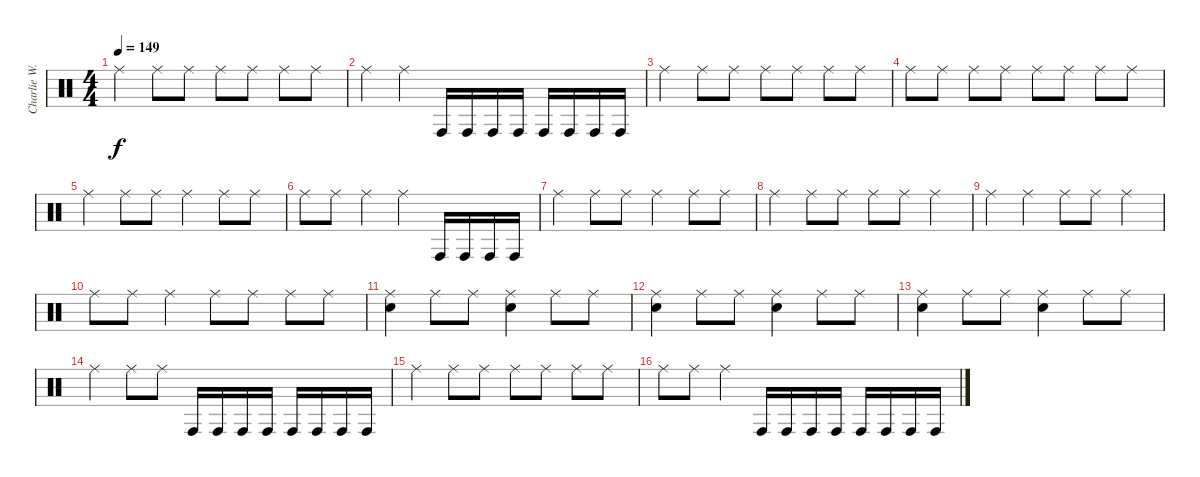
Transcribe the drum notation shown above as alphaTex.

\track ("Charlie W. drums" "Charlie W.") {instrument percussion}
\staff {score}
\articulation defaults
\ts (4 4)
\tempo 149
\clef neutral
\ks c "Ride (middle)".4{dy f} "Ride (middle)".8 "Ride (middle)".8 "Ride (middle)".8 "Ride (middle)".8 "Ride (middle)".8 "Ride (middle)".8
|
"Ride (middle)".4 "Ride (middle)".4 "Conga high (hit)".16 "Conga high (hit)".16 "Conga high (hit)".16 "Conga high (hit)".16 "Conga high (hit)".16 "Conga high (hit)".16 "Conga high (hit)".16 "Conga high (hit)".16 |
"Ride (middle)".4 "Ride (middle)".8 "Ride (middle)".8 "Ride (middle)".8 "Ride (middle)".8 "Ride (middle)".8 "Ride (middle)".8 |
"Ride (middle)".8 "Ride (middle)".8 "Ride (middle)".8 "Ride (middle)".8 "Ride (middle)".8 "Ride (middle)".8 "Ride (middle)".8 "Ride (middle)".8 |
"Ride (middle)".4 "Ride (middle)".8 "Ride (middle)".8 "Ride (middle)".4 "Ride (middle)".8 "Ride (middle)".8 |
"Ride (middle)".8 "Ride (middle)".8 "Ride (middle)".4 "Ride (middle)".4 "Conga high (hit)".16 "Conga high (hit)".16 "Conga high (hit)".16 "Conga high (hit)".16 |
"Ride (middle)".4 "Ride (middle)".8 "Ride (middle)".8 "Ride (middle)".4 "Ride (middle)".8 "Ride (middle)".8 |
"Ride (middle)".4 "Ride (middle)".8 "Ride (middle)".8 "Ride (middle)".8 "Ride (middle)".8 "Ride (middle)".4 |
"Ride (middle)".4 "Ride (middle)".4 "Ride (middle)".8 "Ride (middle)".8 "Ride (middle)".4 |
"Ride (middle)".8 "Ride (middle)".8 "Ride (middle)".4 "Ride (middle)".8 "Ride (middle)".8 "Ride (middle)".8 "Ride (middle)".8 |
("Ride (middle)" "Snare (hit) 2").4 "Ride (middle)".8 "Ride (middle)".8 ("Ride (middle)" "Snare (hit) 2").4 "Ride (middle)".8 "Ride (middle)".8 |
("Ride (middle)" "Snare (hit) 2").4 "Ride (middle)".8 "Ride (middle)".8 ("Ride (middle)" "Snare (hit) 2").4 "Ride (middle)".8 "Ride (middle)".8 |
("Ride (middle)" "Snare (hit) 2").4 "Ride (middle)".8 "Ride (middle)".8 ("Ride (middle)" "Snare (hit) 2").4 "Ride (middle)".8 "Ride (middle)".8 |
"Ride (middle)".4 "Ride (middle)".8 "Ride (middle)".8 "Conga high (hit)".16 "Conga high (hit)".16 "Conga high (hit)".16 "Conga high (hit)".16 "Conga high (hit)".16 "Conga high (hit)".16 "Conga high (hit)".16 "Conga high (hit)".16 |
"Ride (middle)".4 "Ride (middle)".8 "Ride (middle)".8 "Ride (middle)".8 "Ride (middle)".8 "Ride (middle)".8 "Ride (middle)".8 |
"Ride (middle)".8 "Ride (middle)".8 "Ride (middle)".4 "Conga high (hit)".16 "Conga high (hit)".16 "Conga high (hit)".16 "Conga high (hit)".16 "Conga high (hit)".16 "Conga high (hit)".16 "Conga high (hit)".16 "Conga high (hit)".16
